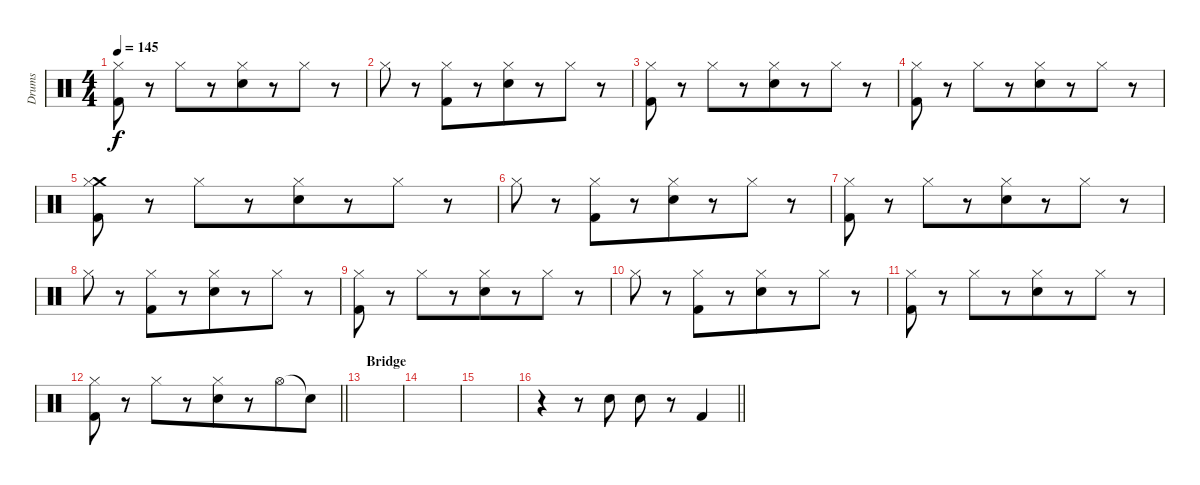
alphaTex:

\track ("Drums" "Drums") {instrument percussion bank 245}
\staff {score}
\articulation defaults
\ts (4 4)
\tempo 145
\clef neutral
\ks c
("Kick (hit) 2" "Hi-Hat (closed)").8{dy f} r.8{beam merge} "Hi-Hat (closed)".8{beam merge} r.8 ("Electric Snare (hit)" "Hi-Hat (closed)").8{beam merge} r.8 "Hi-Hat (closed)".8{beam merge} r.8 |
"Hi-Hat (closed)".8 r.8{beam merge} ("Kick (hit) 2" "Hi-Hat (closed)").8{beam merge} r.8 ("Electric Snare (hit)" "Hi-Hat (closed)").8{beam merge} r.8 "Hi-Hat (closed)".8{beam merge} r.8 |
("Kick (hit) 2" "Hi-Hat (closed)").8 r.8{beam merge} "Hi-Hat (closed)".8{beam merge} r.8 ("Electric Snare (hit)" "Hi-Hat (closed)").8{beam merge} r.8 "Hi-Hat (closed)".8{beam merge} r.8 |
("Kick (hit) 2" "Hi-Hat (closed)").8 r.8{beam merge} "Hi-Hat (closed)".8{beam merge} r.8 ("Electric Snare (hit)" "Hi-Hat (closed)").8{beam merge} r.8 "Hi-Hat (closed)".8{beam merge} r.8 |
("Crash medium (hit)" "Kick (hit) 2" "Hi-Hat (closed)").8 r.8{beam merge} "Hi-Hat (closed)".8{beam merge} r.8 ("Electric Snare (hit)" "Hi-Hat (closed)").8{beam merge} r.8 "Hi-Hat (closed)".8{beam merge} r.8 |
"Hi-Hat (closed)".8 r.8{beam merge} ("Kick (hit) 2" "Hi-Hat (closed)").8{beam merge} r.8 ("Electric Snare (hit)" "Hi-Hat (closed)").8{beam merge} r.8 "Hi-Hat (closed)".8{beam merge} r.8 |
("Kick (hit) 2" "Hi-Hat (closed)").8 r.8{beam merge} "Hi-Hat (closed)".8{beam merge} r.8 ("Electric Snare (hit)" "Hi-Hat (closed)").8{beam merge} r.8 "Hi-Hat (closed)".8{beam merge} r.8 |
"Hi-Hat (closed)".8 r.8{beam merge} ("Kick (hit) 2" "Hi-Hat (closed)").8{beam merge} r.8 ("Electric Snare (hit)" "Hi-Hat (closed)").8{beam merge} r.8 "Hi-Hat (closed)".8{beam merge} r.8 |
("Kick (hit) 2" "Hi-Hat (closed)").8 r.8{beam merge} "Hi-Hat (closed)".8{beam merge} r.8 ("Electric Snare (hit)" "Hi-Hat (closed)").8{beam merge} r.8 "Hi-Hat (closed)".8{beam merge} r.8 |
"Hi-Hat (closed)".8 r.8{beam merge} ("Kick (hit) 2" "Hi-Hat (closed)").8{beam merge} r.8 ("Electric Snare (hit)" "Hi-Hat (closed)").8{beam merge} r.8 "Hi-Hat (closed)".8{beam merge} r.8 |
("Kick (hit) 2" "Hi-Hat (closed)").8 r.8{beam merge} "Hi-Hat (closed)".8{beam merge} r.8 ("Electric Snare (hit)" "Hi-Hat (closed)").8{beam merge} r.8 "Hi-Hat (closed)".8{beam merge} r.8 |
\barLineRight lightlight
("Kick (hit) 2" "Hi-Hat (closed)").8 r.8{beam merge} "Hi-Hat (closed)".8{beam merge} r.8 ("Electric Snare (hit)" "Hi-Hat (closed)").8{beam merge} r.8 "Hi-Hat (open)".8{beam merge} "Snare (hit)"{t}.8 |
\section ("" "Bridge")
|
|
|
\barLineRight lightlight
r.4 r.8 "Electric Snare (hit)".8 "Electric Snare (hit)".8 r.8{beam merge} "Kick (hit) 2".4
